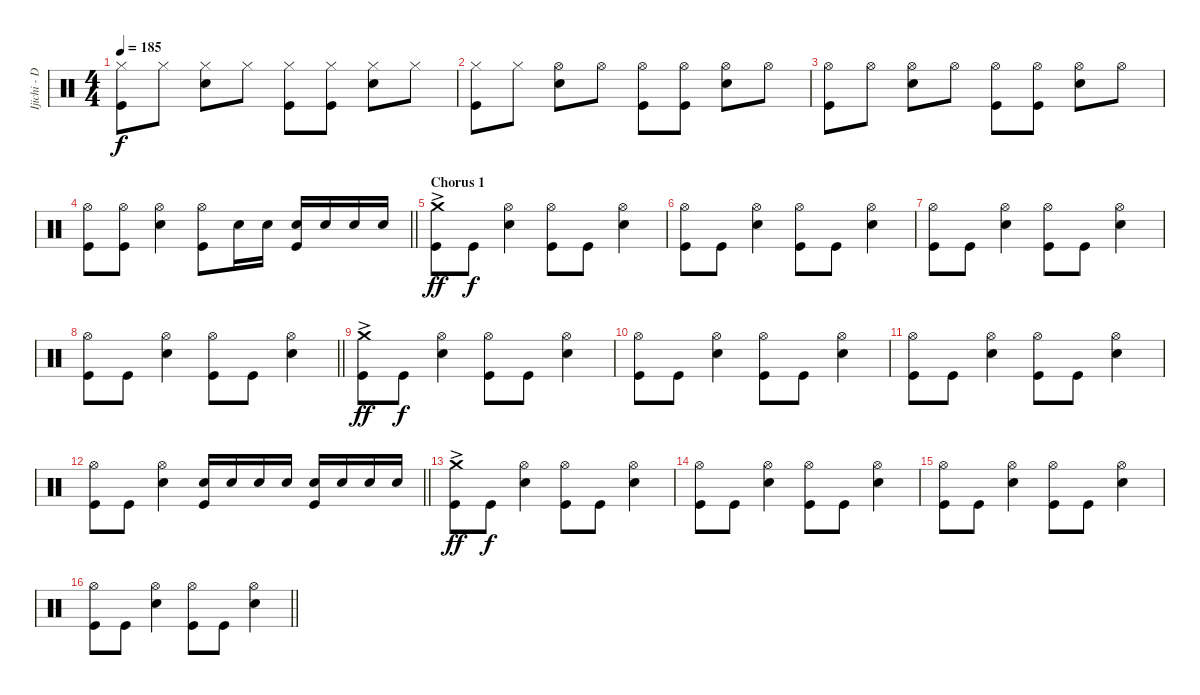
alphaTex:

\track ("Ijichi - Drums" "Ijichi - D") {instrument percussion}
\staff
\articulation defaults
\ts (4 4)
\tempo 185
\clef neutral
\ks c
("Hi-Hat (closed)" "Kick (hit)").8{dy f} "Hi-Hat (closed)".8 ("Hi-Hat (closed)" "Electric Snare (hit)").8 "Hi-Hat (closed)".8 ("Hi-Hat (closed)" "Kick (hit)").8 ("Hi-Hat (closed)" "Kick (hit)").8 ("Hi-Hat (closed)" "Electric Snare (hit)").8 "Hi-Hat (closed)".8 |
("Hi-Hat (closed)" "Kick (hit)").8 "Hi-Hat (closed)".8 ("Hi-Hat (open)" "Electric Snare (hit)").8 "Hi-Hat (open)".8 ("Hi-Hat (open)" "Kick (hit)").8 ("Hi-Hat (open)" "Kick (hit)").8 ("Hi-Hat (open)" "Electric Snare (hit)").8 "Hi-Hat (open)".8 |
("Hi-Hat (open)" "Kick (hit)").8 "Hi-Hat (open)".8 ("Hi-Hat (open)" "Electric Snare (hit)").8 "Hi-Hat (open)".8 ("Hi-Hat (open)" "Kick (hit)").8 ("Hi-Hat (open)" "Kick (hit)").8 ("Hi-Hat (open)" "Electric Snare (hit)").8 "Hi-Hat (open)".8 |
\barLineRight lightlight
("Hi-Hat (open)" "Kick (hit)").8 ("Hi-Hat (open)" "Kick (hit)").8 ("Hi-Hat (open)" "Electric Snare (hit)").4 ("Hi-Hat (open)" "Kick (hit)").8 "Electric Snare (hit)".16 "Electric Snare (hit)".16 ("Electric Snare (hit)" "Kick (hit)").16 "Electric Snare (hit)".16 "Electric Snare (hit)".16 "Electric Snare (hit)".16 |
\section ("" "Chorus 1")
("Crash medium (hit)"{ac} "Kick (hit)").8{dy ff} "Kick (hit)".8{dy f} ("Hi-Hat (open)" "Electric Snare (hit)").4 ("Hi-Hat (open)" "Kick (hit)").8 "Kick (hit)".8 ("Hi-Hat (open)" "Electric Snare (hit)").4 |
("Hi-Hat (open)" "Kick (hit)").8 "Kick (hit)".8 ("Hi-Hat (open)" "Electric Snare (hit)").4 ("Hi-Hat (open)" "Kick (hit)").8 "Kick (hit)".8 ("Hi-Hat (open)" "Electric Snare (hit)").4 |
("Hi-Hat (open)" "Kick (hit)").8 "Kick (hit)".8 ("Hi-Hat (open)" "Electric Snare (hit)").4 ("Hi-Hat (open)" "Kick (hit)").8 "Kick (hit)".8 ("Hi-Hat (open)" "Electric Snare (hit)").4 |
\barLineRight lightlight
("Hi-Hat (open)" "Kick (hit)").8 "Kick (hit)".8 ("Hi-Hat (open)" "Electric Snare (hit)").4 ("Hi-Hat (open)" "Kick (hit)").8 "Kick (hit)".8 ("Hi-Hat (open)" "Electric Snare (hit)").4 |
("Crash medium (hit)"{ac} "Kick (hit)").8{dy ff} "Kick (hit)".8{dy f} ("Hi-Hat (open)" "Electric Snare (hit)").4 ("Hi-Hat (open)" "Kick (hit)").8 "Kick (hit)".8 ("Hi-Hat (open)" "Electric Snare (hit)").4 |
("Hi-Hat (open)" "Kick (hit)").8 "Kick (hit)".8 ("Hi-Hat (open)" "Electric Snare (hit)").4 ("Hi-Hat (open)" "Kick (hit)").8 "Kick (hit)".8 ("Hi-Hat (open)" "Electric Snare (hit)").4 |
("Hi-Hat (open)" "Kick (hit)").8 "Kick (hit)".8 ("Hi-Hat (open)" "Electric Snare (hit)").4 ("Hi-Hat (open)" "Kick (hit)").8 "Kick (hit)".8 ("Hi-Hat (open)" "Electric Snare (hit)").4 |
\barLineRight lightlight
("Hi-Hat (open)" "Kick (hit)").8 "Kick (hit)".8 ("Hi-Hat (open)" "Electric Snare (hit)").4 ("Electric Snare (hit)" "Kick (hit)").16 "Electric Snare (hit)".16 "Electric Snare (hit)".16 "Electric Snare (hit)".16 ("Electric Snare (hit)" "Kick (hit)").16 "Electric Snare (hit)".16 "Electric Snare (hit)".16 "Electric Snare (hit)".16 |
("Crash medium (hit)"{ac} "Kick (hit)").8{dy ff} "Kick (hit)".8{dy f} ("Hi-Hat (open)" "Electric Snare (hit)").4 ("Hi-Hat (open)" "Kick (hit)").8 "Kick (hit)".8 ("Hi-Hat (open)" "Electric Snare (hit)").4 |
("Hi-Hat (open)" "Kick (hit)").8 "Kick (hit)".8 ("Hi-Hat (open)" "Electric Snare (hit)").4 ("Hi-Hat (open)" "Kick (hit)").8 "Kick (hit)".8 ("Hi-Hat (open)" "Electric Snare (hit)").4 |
("Hi-Hat (open)" "Kick (hit)").8 "Kick (hit)".8 ("Hi-Hat (open)" "Electric Snare (hit)").4 ("Hi-Hat (open)" "Kick (hit)").8 "Kick (hit)".8 ("Hi-Hat (open)" "Electric Snare (hit)").4 |
\barLineRight lightlight
("Hi-Hat (open)" "Kick (hit)").8 "Kick (hit)".8 ("Hi-Hat (open)" "Electric Snare (hit)").4 ("Hi-Hat (open)" "Kick (hit)").8 "Kick (hit)".8 ("Hi-Hat (open)" "Electric Snare (hit)").4
